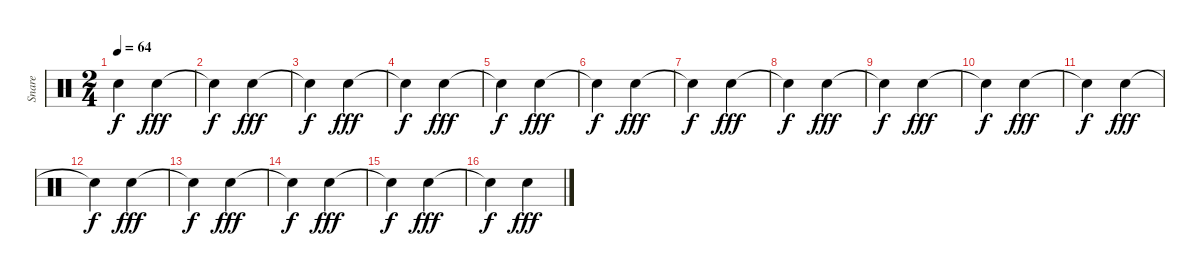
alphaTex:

\track ("Snare" "Snare") {instrument percussion}
\staff {score}
\articulation defaults
\ts (2 4)
\tempo 64
\clef neutral
\ks c "Snare (hit)"{t}.4{dy f} "Snare (hit) 2".4{dy fff}
|
"Snare (hit)"{t}.4{dy f} "Snare (hit) 2".4{dy fff} |
"Snare (hit)"{t}.4{dy f} "Snare (hit) 2".4{dy fff} |
"Snare (hit)"{t}.4{dy f} "Snare (hit) 2".4{dy fff} |
"Snare (hit)"{t}.4{dy f} "Snare (hit) 2".4{dy fff} |
"Snare (hit)"{t}.4{dy f} "Snare (hit) 2".4{dy fff} |
"Snare (hit)"{t}.4{dy f} "Snare (hit) 2".4{dy fff} |
"Snare (hit)"{t}.4{dy f} "Snare (hit) 2".4{dy fff} |
"Snare (hit)"{t}.4{dy f} "Snare (hit) 2".4{dy fff} |
"Snare (hit)"{t}.4{dy f} "Snare (hit) 2".4{dy fff} |
"Snare (hit)"{t}.4{dy f} "Snare (hit) 2".4{dy fff} |
"Snare (hit)"{t}.4{dy f} "Snare (hit) 2".4{dy fff} |
"Snare (hit)"{t}.4{dy f} "Snare (hit) 2".4{dy fff} |
"Snare (hit)"{t}.4{dy f} "Snare (hit) 2".4{dy fff} |
"Snare (hit)"{t}.4{dy f} "Snare (hit) 2".4{dy fff} |
"Snare (hit)"{t}.4{dy f} "Snare (hit) 2".4{dy fff}
